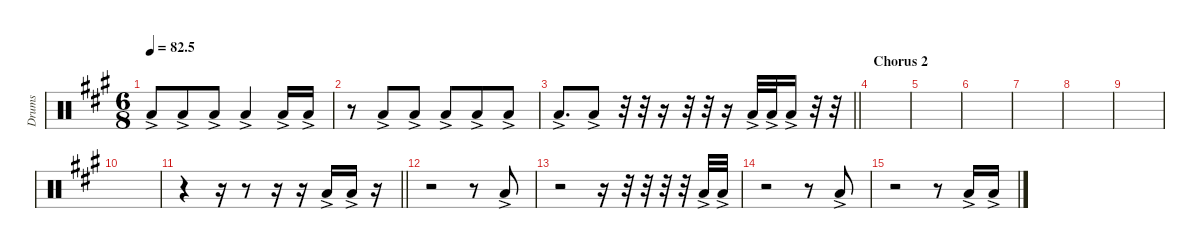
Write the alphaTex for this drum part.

\defaultSystemsLayout 4
\hideDynamics
\bracketExtendMode nobrackets
\otherSystemsTrackNameOrientation horizontal
\track ("Tom 03" "Drums") {instrument percussion}
\staff {score}
\articulation defaults
\ts (6 8)
\tempo
82.5
\accidentals auto
\clef neutral
\ottava regular
\simile none
\scale
0.333333
\ks a "Low Tom (hit)"{ac acc forcenatural}.8{dy f} "Low Tom (hit)"{ac acc forcenatural}.8 "Low Tom (hit)"{ac acc forcenatural}.8 "Low Tom (hit)"{ac acc forcenatural}.4 "Low Tom (hit)"{ac acc forcenatural}.16 "Low Tom (hit)"{ac acc forcenatural}.16
|
\scale
0.333333 r.8 "Low Tom (hit)"{ac acc forcenatural}.8 "Low Tom (hit)"{ac acc forcenatural}.8 "Low Tom (hit)"{ac acc forcenatural}.8 "Low Tom (hit)"{ac acc forcenatural}.8 "Low Tom (hit)"{ac acc forcenatural}.8 |
\scale
0.333333
\barLineRight lightlight "Low Tom (hit)"{ac acc forcenatural}.8{d} "Low Tom (hit)"{ac acc forcenatural}.8
r.32 r.32 r.16 r.32 r.32 r.16 "Low Tom (hit)"{ac acc forcenatural}.32 "Low Tom (hit)"{ac acc forcenatural}.32 "Low Tom (hit)"{ac acc forcenatural}.16 r.32 r.32 |
\section ("" "Chorus 2")
\scale
0.333333 |
\scale
0.333333 |
\scale
0.333333 |
\scale
0.333333 |
\scale
0.333333 |
\scale
0.333333 |
\scale
0.333333 |
\scale
0.333333
\barLineRight lightlight
r.4 r.16 r.8 r.16 r.16 "Low Tom (hit)"{ac acc forcenatural}.16 "Low Tom (hit)"{ac acc forcenatural}.16 r.16 |
\scale
0.333333 r.2 r.8 "Low Tom (hit)"{ac acc forcenatural}.8 |
\scale
0.333333 r.2 r.16 r.32 r.32 r.32 r.32 "Low Tom (hit)"{ac acc forcenatural}.32 "Low Tom (hit)"{ac acc forcenatural}.32 |
\scale
0.333333 r.2 r.8 "Low Tom (hit)"{ac acc forcenatural}.8 |
\scale
0.333333 r.2 r.8 "Low Tom (hit)"{ac acc forcenatural}.16 "Low Tom (hit)"{ac acc forcenatural}.16 |
\scale
0.333333
